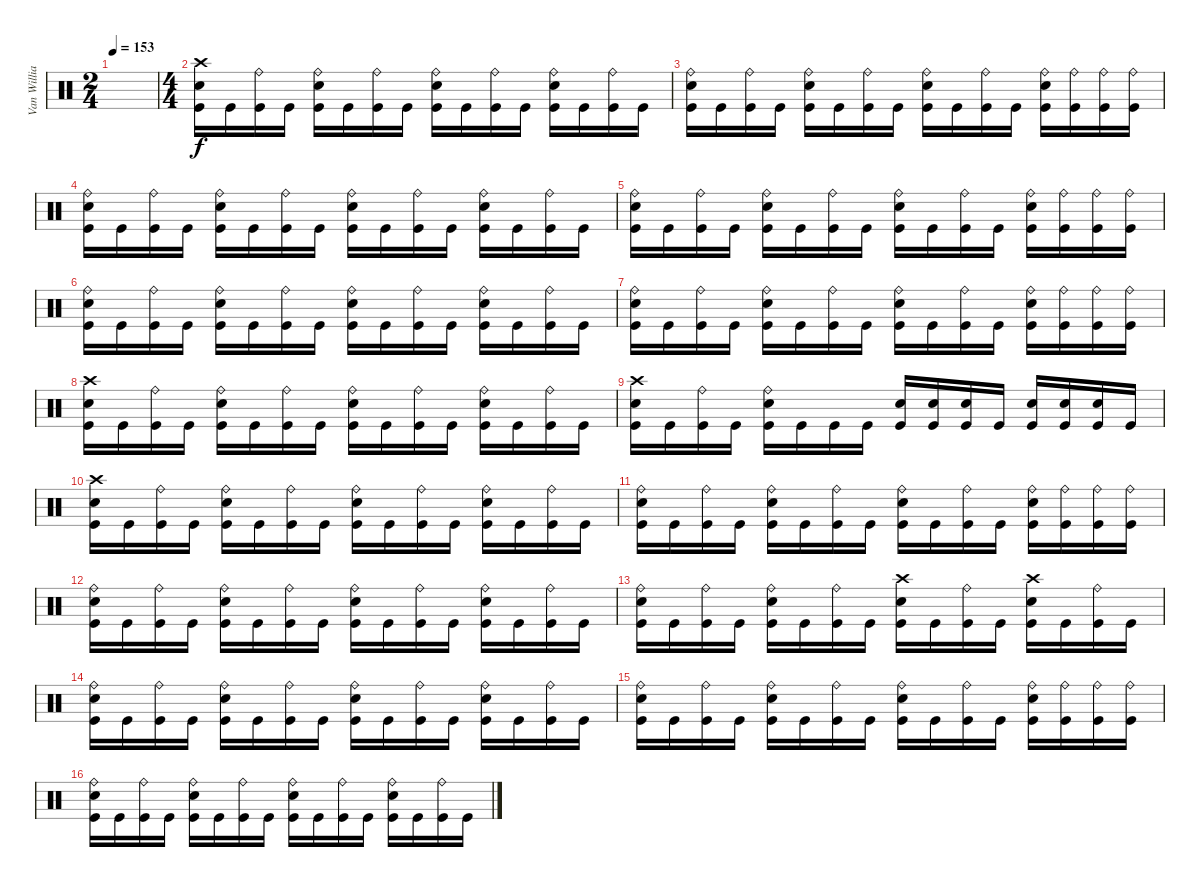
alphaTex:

\track ("Van Williams" "Van Willia") {instrument percussion}
\staff {score}
\articulation defaults
\ts (2 4)
\tempo 153
\clef neutral
\ks c
|
\ts (4 4)
("Crash high (hit)" "Electric Snare (hit)" "Kick (hit)").16 "Kick (hit)".16 ("Ride (bell)" "Kick (hit)").16 "Kick (hit)".16 ("Ride (bell)" "Electric Snare (hit)" "Kick (hit)").16 "Kick (hit)".16 ("Ride (bell)" "Kick (hit)").16 "Kick (hit)".16 ("Ride (bell)" "Electric Snare (hit)" "Kick (hit)").16 "Kick (hit)".16 ("Ride (bell)" "Kick (hit)").16 "Kick (hit)".16 ("Ride (bell)" "Electric Snare (hit)" "Kick (hit)").16 "Kick (hit)".16 ("Ride (bell)" "Kick (hit)").16 "Kick (hit)".16 |
("Ride (bell)" "Electric Snare (hit)" "Kick (hit)").16 "Kick (hit)".16 ("Ride (bell)" "Kick (hit)").16 "Kick (hit)".16 ("Ride (bell)" "Electric Snare (hit)" "Kick (hit)").16 "Kick (hit)".16 ("Ride (bell)" "Kick (hit)").16 "Kick (hit)".16 ("Ride (bell)" "Electric Snare (hit)" "Kick (hit)").16 "Kick (hit)".16 ("Ride (bell)" "Kick (hit)").16 "Kick (hit)".16 ("Ride (bell)" "Electric Snare (hit)" "Kick (hit)").16 ("Ride (bell)" "Kick (hit)").16 ("Ride (bell)" "Kick (hit)").16 ("Ride (bell)" "Kick (hit)").16 |
("Ride (bell)" "Electric Snare (hit)" "Kick (hit)").16 "Kick (hit)".16 ("Ride (bell)" "Kick (hit)").16 "Kick (hit)".16 ("Ride (bell)" "Electric Snare (hit)" "Kick (hit)").16 "Kick (hit)".16 ("Ride (bell)" "Kick (hit)").16 "Kick (hit)".16 ("Ride (bell)" "Electric Snare (hit)" "Kick (hit)").16 "Kick (hit)".16 ("Ride (bell)" "Kick (hit)").16 "Kick (hit)".16 ("Ride (bell)" "Electric Snare (hit)" "Kick (hit)").16 "Kick (hit)".16 ("Ride (bell)" "Kick (hit)").16 "Kick (hit)".16 |
("Ride (bell)" "Electric Snare (hit)" "Kick (hit)").16 "Kick (hit)".16 ("Ride (bell)" "Kick (hit)").16 "Kick (hit)".16 ("Ride (bell)" "Electric Snare (hit)" "Kick (hit)").16 "Kick (hit)".16 ("Ride (bell)" "Kick (hit)").16 "Kick (hit)".16 ("Ride (bell)" "Electric Snare (hit)" "Kick (hit)").16 "Kick (hit)".16 ("Ride (bell)" "Kick (hit)").16 "Kick (hit)".16 ("Ride (bell)" "Electric Snare (hit)" "Kick (hit)").16 ("Ride (bell)" "Kick (hit)").16 ("Ride (bell)" "Kick (hit)").16 ("Ride (bell)" "Kick (hit)").16 |
("Ride (bell)" "Electric Snare (hit)" "Kick (hit)").16 "Kick (hit)".16 ("Ride (bell)" "Kick (hit)").16 "Kick (hit)".16 ("Ride (bell)" "Electric Snare (hit)" "Kick (hit)").16 "Kick (hit)".16 ("Ride (bell)" "Kick (hit)").16 "Kick (hit)".16 ("Ride (bell)" "Electric Snare (hit)" "Kick (hit)").16 "Kick (hit)".16 ("Ride (bell)" "Kick (hit)").16 "Kick (hit)".16 ("Ride (bell)" "Electric Snare (hit)" "Kick (hit)").16 "Kick (hit)".16 ("Ride (bell)" "Kick (hit)").16 "Kick (hit)".16 |
("Ride (bell)" "Electric Snare (hit)" "Kick (hit)").16 "Kick (hit)".16 ("Ride (bell)" "Kick (hit)").16 "Kick (hit)".16 ("Ride (bell)" "Electric Snare (hit)" "Kick (hit)").16 "Kick (hit)".16 ("Ride (bell)" "Kick (hit)").16 "Kick (hit)".16 ("Ride (bell)" "Electric Snare (hit)" "Kick (hit)").16 "Kick (hit)".16 ("Ride (bell)" "Kick (hit)").16 "Kick (hit)".16 ("Ride (bell)" "Electric Snare (hit)" "Kick (hit)").16 ("Ride (bell)" "Kick (hit)").16 ("Ride (bell)" "Kick (hit)").16 ("Ride (bell)" "Kick (hit)").16 |
("Crash high (hit)" "Electric Snare (hit)" "Kick (hit)").16 "Kick (hit)".16 ("Ride (bell)" "Kick (hit)").16 "Kick (hit)".16 ("Ride (bell)" "Electric Snare (hit)" "Kick (hit)").16 "Kick (hit)".16 ("Ride (bell)" "Kick (hit)").16 "Kick (hit)".16 ("Ride (bell)" "Electric Snare (hit)" "Kick (hit)").16 "Kick (hit)".16 ("Ride (bell)" "Kick (hit)").16 "Kick (hit)".16 ("Ride (bell)" "Electric Snare (hit)" "Kick (hit)").16 "Kick (hit)".16 ("Ride (bell)" "Kick (hit)").16 "Kick (hit)".16 |
("Crash high (hit)" "Electric Snare (hit)" "Kick (hit)").16 "Kick (hit)".16 ("Ride (bell)" "Kick (hit)").16 "Kick (hit)".16 ("Ride (bell)" "Electric Snare (hit)" "Kick (hit)").16 "Kick (hit)".16 "Kick (hit)".16 "Kick (hit)".16 ("Electric Snare (hit)" "Kick (hit)").16 ("Electric Snare (hit)" "Kick (hit)").16 ("Electric Snare (hit)" "Kick (hit)").16 "Kick (hit)".16 ("Electric Snare (hit)" "Kick (hit)").16 ("Electric Snare (hit)" "Kick (hit)").16 ("Electric Snare (hit)" "Kick (hit)").16 "Kick (hit)".16 |
("Crash high (hit)" "Electric Snare (hit)" "Kick (hit)").16 "Kick (hit)".16 ("Ride (bell)" "Kick (hit)").16 "Kick (hit)".16 ("Ride (bell)" "Electric Snare (hit)" "Kick (hit)").16 "Kick (hit)".16 ("Ride (bell)" "Kick (hit)").16 "Kick (hit)".16 ("Ride (bell)" "Electric Snare (hit)" "Kick (hit)").16 "Kick (hit)".16 ("Ride (bell)" "Kick (hit)").16 "Kick (hit)".16 ("Ride (bell)" "Electric Snare (hit)" "Kick (hit)").16 "Kick (hit)".16 ("Ride (bell)" "Kick (hit)").16 "Kick (hit)".16 |
("Ride (bell)" "Electric Snare (hit)" "Kick (hit)").16 "Kick (hit)".16 ("Ride (bell)" "Kick (hit)").16 "Kick (hit)".16 ("Ride (bell)" "Electric Snare (hit)" "Kick (hit)").16 "Kick (hit)".16 ("Ride (bell)" "Kick (hit)").16 "Kick (hit)".16 ("Ride (bell)" "Electric Snare (hit)" "Kick (hit)").16 "Kick (hit)".16 ("Ride (bell)" "Kick (hit)").16 "Kick (hit)".16 ("Ride (bell)" "Electric Snare (hit)" "Kick (hit)").16 ("Ride (bell)" "Kick (hit)").16 ("Ride (bell)" "Kick (hit)").16 ("Ride (bell)" "Kick (hit)").16 |
("Ride (bell)" "Electric Snare (hit)" "Kick (hit)").16 "Kick (hit)".16 ("Ride (bell)" "Kick (hit)").16 "Kick (hit)".16 ("Ride (bell)" "Electric Snare (hit)" "Kick (hit)").16 "Kick (hit)".16 ("Ride (bell)" "Kick (hit)").16 "Kick (hit)".16 ("Ride (bell)" "Electric Snare (hit)" "Kick (hit)").16 "Kick (hit)".16 ("Ride (bell)" "Kick (hit)").16 "Kick (hit)".16 ("Ride (bell)" "Electric Snare (hit)" "Kick (hit)").16 "Kick (hit)".16 ("Ride (bell)" "Kick (hit)").16 "Kick (hit)".16 |
("Ride (bell)" "Electric Snare (hit)" "Kick (hit)").16 "Kick (hit)".16 ("Ride (bell)" "Kick (hit)").16 "Kick (hit)".16 ("Ride (bell)" "Electric Snare (hit)" "Kick (hit)").16 "Kick (hit)".16 ("Ride (bell)" "Kick (hit)").16 "Kick (hit)".16 ("Crash high (hit)" "Electric Snare (hit)" "Kick (hit)").16 "Kick (hit)".16 ("Ride (bell)" "Kick (hit)").16 "Kick (hit)".16 ("Crash high (hit)" "Electric Snare (hit)" "Kick (hit)").16 "Kick (hit)".16 ("Ride (bell)" "Kick (hit)").16 "Kick (hit)".16 |
("Ride (bell)" "Electric Snare (hit)" "Kick (hit)").16 "Kick (hit)".16 ("Ride (bell)" "Kick (hit)").16 "Kick (hit)".16 ("Ride (bell)" "Electric Snare (hit)" "Kick (hit)").16 "Kick (hit)".16 ("Ride (bell)" "Kick (hit)").16 "Kick (hit)".16 ("Ride (bell)" "Electric Snare (hit)" "Kick (hit)").16 "Kick (hit)".16 ("Ride (bell)" "Kick (hit)").16 "Kick (hit)".16 ("Ride (bell)" "Electric Snare (hit)" "Kick (hit)").16 "Kick (hit)".16 ("Ride (bell)" "Kick (hit)").16 "Kick (hit)".16 |
("Ride (bell)" "Electric Snare (hit)" "Kick (hit)").16 "Kick (hit)".16 ("Ride (bell)" "Kick (hit)").16 "Kick (hit)".16 ("Ride (bell)" "Electric Snare (hit)" "Kick (hit)").16 "Kick (hit)".16 ("Ride (bell)" "Kick (hit)").16 "Kick (hit)".16 ("Ride (bell)" "Electric Snare (hit)" "Kick (hit)").16 "Kick (hit)".16 ("Ride (bell)" "Kick (hit)").16 "Kick (hit)".16 ("Ride (bell)" "Electric Snare (hit)" "Kick (hit)").16 ("Ride (bell)" "Kick (hit)").16 ("Ride (bell)" "Kick (hit)").16 ("Ride (bell)" "Kick (hit)").16 |
("Ride (bell)" "Electric Snare (hit)" "Kick (hit)").16 "Kick (hit)".16 ("Ride (bell)" "Kick (hit)").16 "Kick (hit)".16 ("Ride (bell)" "Electric Snare (hit)" "Kick (hit)").16 "Kick (hit)".16 ("Ride (bell)" "Kick (hit)").16 "Kick (hit)".16 ("Ride (bell)" "Electric Snare (hit)" "Kick (hit)").16 "Kick (hit)".16 ("Ride (bell)" "Kick (hit)").16 "Kick (hit)".16 ("Ride (bell)" "Electric Snare (hit)" "Kick (hit)").16 "Kick (hit)".16 ("Ride (bell)" "Kick (hit)").16 "Kick (hit)".16
